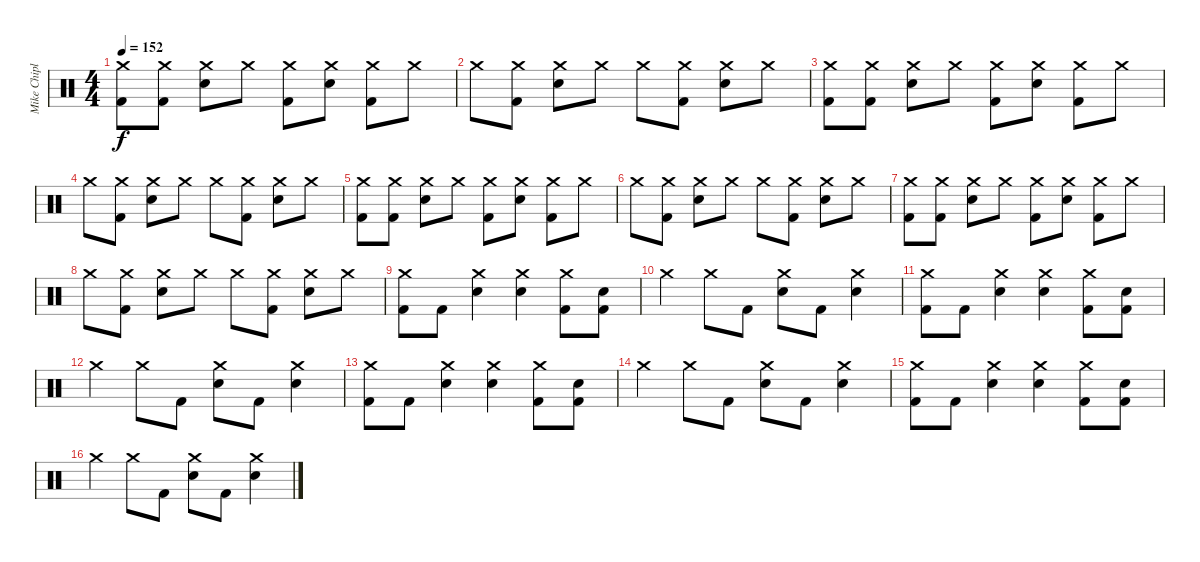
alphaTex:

\track ("Mike Chiplin" "Mike Chipl") {instrument percussion}
\staff {score}
\articulation defaults
\ts (4 4)
\tempo 152
\clef neutral
\ks c
("Crash medium (hit)" "Kick (hit) 2").8{dy f} ("Crash medium (hit)" "Kick (hit) 2").8 ("Crash medium (hit)" "Snare (hit) 2").8 "Crash medium (hit)".8 ("Crash medium (hit)" "Kick (hit) 2").8 ("Crash medium (hit)" "Snare (hit) 2").8 ("Crash medium (hit)" "Kick (hit) 2").8 "Crash medium (hit)".8 |
"Crash medium (hit)".8 ("Crash medium (hit)" "Kick (hit) 2").8 ("Crash medium (hit)" "Snare (hit) 2").8 "Crash medium (hit)".8 "Crash medium (hit)".8 ("Crash medium (hit)" "Kick (hit) 2").8 ("Crash medium (hit)" "Snare (hit) 2").8 "Crash medium (hit)".8 |
("Crash medium (hit)" "Kick (hit) 2").8 ("Crash medium (hit)" "Kick (hit) 2").8 ("Crash medium (hit)" "Snare (hit) 2").8 "Crash medium (hit)".8 ("Crash medium (hit)" "Kick (hit) 2").8 ("Crash medium (hit)" "Snare (hit) 2").8 ("Crash medium (hit)" "Kick (hit) 2").8 "Crash medium (hit)".8 |
"Crash medium (hit)".8 ("Crash medium (hit)" "Kick (hit) 2").8 ("Crash medium (hit)" "Snare (hit) 2").8 "Crash medium (hit)".8 "Crash medium (hit)".8 ("Crash medium (hit)" "Kick (hit) 2").8 ("Crash medium (hit)" "Snare (hit) 2").8 "Crash medium (hit)".8 |
("Crash medium (hit)" "Kick (hit) 2").8 ("Crash medium (hit)" "Kick (hit) 2").8 ("Crash medium (hit)" "Snare (hit) 2").8 "Crash medium (hit)".8 ("Crash medium (hit)" "Kick (hit) 2").8 ("Crash medium (hit)" "Snare (hit) 2").8 ("Crash medium (hit)" "Kick (hit) 2").8 "Crash medium (hit)".8 |
"Crash medium (hit)".8 ("Crash medium (hit)" "Kick (hit) 2").8 ("Crash medium (hit)" "Snare (hit) 2").8 "Crash medium (hit)".8 "Crash medium (hit)".8 ("Crash medium (hit)" "Kick (hit) 2").8 ("Crash medium (hit)" "Snare (hit) 2").8 "Crash medium (hit)".8 |
("Crash medium (hit)" "Kick (hit) 2").8 ("Crash medium (hit)" "Kick (hit) 2").8 ("Crash medium (hit)" "Snare (hit) 2").8 "Crash medium (hit)".8 ("Crash medium (hit)" "Kick (hit) 2").8 ("Crash medium (hit)" "Snare (hit) 2").8 ("Crash medium (hit)" "Kick (hit) 2").8 "Crash medium (hit)".8 |
"Crash medium (hit)".8 ("Crash medium (hit)" "Kick (hit) 2").8 ("Crash medium (hit)" "Snare (hit) 2").8 "Crash medium (hit)".8 "Crash medium (hit)".8 ("Crash medium (hit)" "Kick (hit) 2").8 ("Crash medium (hit)" "Snare (hit) 2").8 "Crash medium (hit)".8 |
("Crash medium (hit)" "Kick (hit) 2").8 "Kick (hit) 2".8 ("Crash medium (hit)" "Snare (hit) 2").4 ("Crash medium (hit)" "Snare (hit) 2").4 ("Crash medium (hit)" "Kick (hit) 2").8 ("Snare (hit) 2" "Kick (hit) 2").8 |
"Crash medium (hit)".4 "Crash medium (hit)".8 "Kick (hit) 2".8 ("Crash medium (hit)" "Snare (hit) 2").8 "Kick (hit) 2".8 ("Crash medium (hit)" "Snare (hit) 2").4 |
("Crash medium (hit)" "Kick (hit) 2").8 "Kick (hit) 2".8 ("Crash medium (hit)" "Snare (hit) 2").4 ("Crash medium (hit)" "Snare (hit) 2").4 ("Crash medium (hit)" "Kick (hit) 2").8 ("Snare (hit) 2" "Kick (hit) 2").8 |
"Crash medium (hit)".4 "Crash medium (hit)".8 "Kick (hit) 2".8 ("Crash medium (hit)" "Snare (hit) 2").8 "Kick (hit) 2".8 ("Crash medium (hit)" "Snare (hit) 2").4 |
("Crash medium (hit)" "Kick (hit) 2").8 "Kick (hit) 2".8 ("Crash medium (hit)" "Snare (hit) 2").4 ("Crash medium (hit)" "Snare (hit) 2").4 ("Crash medium (hit)" "Kick (hit) 2").8 ("Snare (hit) 2" "Kick (hit) 2").8 |
"Crash medium (hit)".4 "Crash medium (hit)".8 "Kick (hit) 2".8 ("Crash medium (hit)" "Snare (hit) 2").8 "Kick (hit) 2".8 ("Crash medium (hit)" "Snare (hit) 2").4 |
("Crash medium (hit)" "Kick (hit) 2").8 "Kick (hit) 2".8 ("Crash medium (hit)" "Snare (hit) 2").4 ("Crash medium (hit)" "Snare (hit) 2").4 ("Crash medium (hit)" "Kick (hit) 2").8 ("Snare (hit) 2" "Kick (hit) 2").8 |
"Crash medium (hit)".4 "Crash medium (hit)".8 "Kick (hit) 2".8 ("Crash medium (hit)" "Snare (hit) 2").8 "Kick (hit) 2".8 ("Crash medium (hit)" "Snare (hit) 2").4
